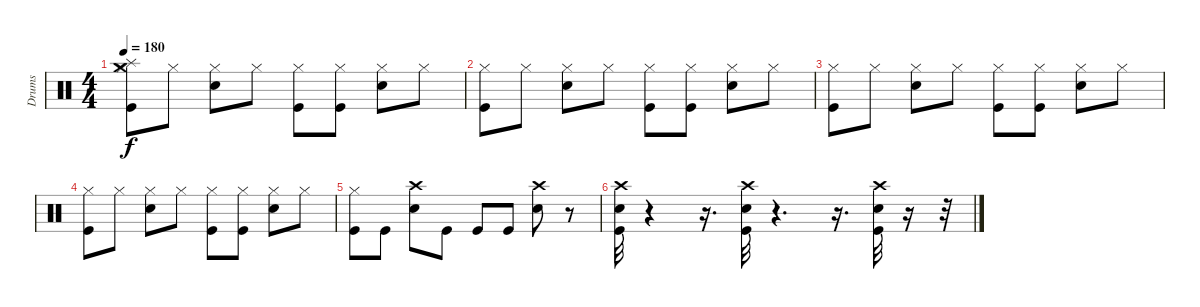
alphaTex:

\track ("Drums" "Drums") {instrument percussion}
\staff {score}
\articulation defaults
\ts (4 4)
\tempo 180
\clef neutral
\ks c
("Crash medium (hit)" "Splash (hit)" "Hi-Hat (closed)" "Kick (hit)").8{dy f} "Hi-Hat (closed)".8 ("Hi-Hat (closed)" "Electric Snare (hit)").8 "Hi-Hat (closed)".8 ("Kick (hit)" "Hi-Hat (closed)").8 ("Hi-Hat (closed)" "Kick (hit)").8 ("Hi-Hat (closed)" "Electric Snare (hit)").8 "Hi-Hat (closed)".8 |
("Hi-Hat (closed)" "Kick (hit)").8 "Hi-Hat (closed)".8 ("Hi-Hat (closed)" "Electric Snare (hit)").8 "Hi-Hat (closed)".8 ("Kick (hit)" "Hi-Hat (closed)").8 ("Hi-Hat (closed)" "Kick (hit)").8 ("Hi-Hat (closed)" "Electric Snare (hit)").8 "Hi-Hat (closed)".8 |
("Hi-Hat (closed)" "Kick (hit)").8 "Hi-Hat (closed)".8 ("Hi-Hat (closed)" "Electric Snare (hit)").8 "Hi-Hat (closed)".8 ("Kick (hit)" "Hi-Hat (closed)").8 ("Hi-Hat (closed)" "Kick (hit)").8 ("Hi-Hat (closed)" "Electric Snare (hit)").8 "Hi-Hat (closed)".8 |
("Hi-Hat (closed)" "Kick (hit)").8 "Hi-Hat (closed)".8 ("Hi-Hat (closed)" "Electric Snare (hit)").8 "Hi-Hat (closed)".8 ("Kick (hit)" "Hi-Hat (closed)").8 ("Hi-Hat (closed)" "Kick (hit)").8 ("Hi-Hat (closed)" "Electric Snare (hit)").8 "Hi-Hat (closed)".8 |
("Hi-Hat (closed)" "Kick (hit)").8 "Kick (hit)".8 ("Crash high (hit)" "Electric Snare (hit)").8 "Kick (hit)".8 "Kick (hit)".8 "Kick (hit)".8 ("Crash high (hit)" "Electric Snare (hit)").8 r.8 |
("Kick (hit)" "Crash high (hit)" "Electric Snare (hit)").32 r.4 r.16{d} ("Kick (hit)" "Crash high (hit)" "Electric Snare (hit)").32 r.4{d} r.16{d} ("Kick (hit)" "Crash high (hit)" "Electric Snare (hit)").32 r.16 r.32
